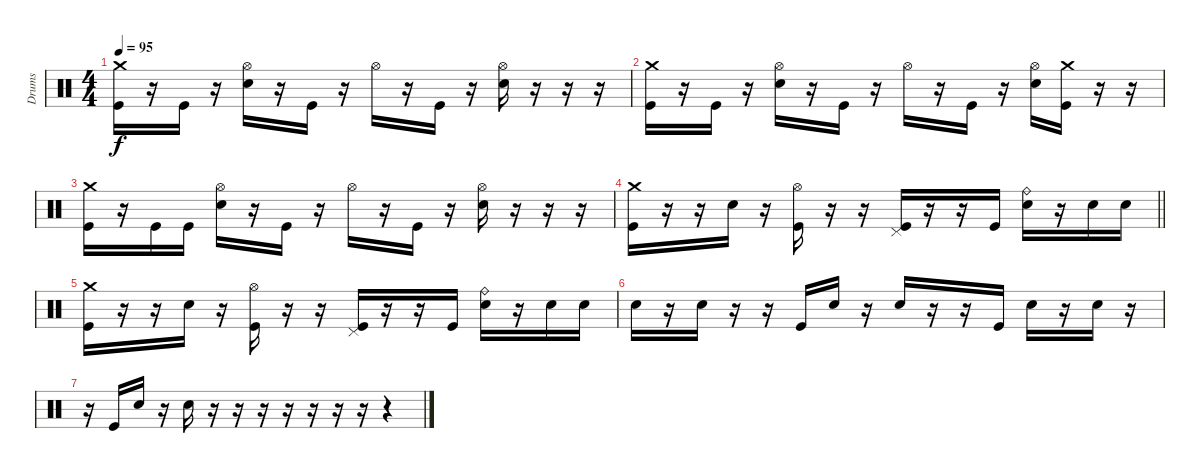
\track ("Drums" "Drums") {instrument percussion}
\staff {score}
\articulation defaults
\ts (4 4)
\tempo 95
\clef neutral
\ks c
("Crash medium (hit)" "Kick (hit)").16{dy f} r.16 "Kick (hit)".16 r.16 ("Hi-Hat (open)" "Electric Snare (hit)").16 r.16 "Kick (hit)".16 r.16 "Hi-Hat (open)".16 r.16 "Kick (hit)".16 r.16 ("Hi-Hat (open)" "Electric Snare (hit)").16 r.16 r.16 r.16 |
("Crash medium (hit)" "Kick (hit)").16 r.16 "Kick (hit)".16 r.16 ("Hi-Hat (open)" "Electric Snare (hit)").16 r.16 "Kick (hit)".16 r.16 "Hi-Hat (open)".16 r.16 "Kick (hit)".16 r.16 ("Hi-Hat (open)" "Electric Snare (hit)").16 ("Crash medium (hit)" "Kick (hit)").16 r.16 r.16 |
("Crash medium (hit)" "Kick (hit)").16 r.16 "Kick (hit)".16 "Kick (hit)".16 ("Hi-Hat (open)" "Electric Snare (hit)").16 r.16 "Kick (hit)".16 r.16 "Hi-Hat (open)".16 r.16 "Kick (hit)".16 r.16 ("Hi-Hat (open)" "Electric Snare (hit)").16 r.16 r.16 r.16 |
\barLineRight lightlight
("Crash medium (hit)" "Kick (hit)").16 r.16 r.16 "Electric Snare (hit)".16 r.16 ("Hi-Hat (open)" "Kick (hit)").16 r.16 r.16 ("Pedal Hi-Hat (hit)" "Kick (hit)").16 r.16 r.16 "Kick (hit)".16 ("Ride (bell)" "Electric Snare (hit)").16 r.16 "Electric Snare (hit)".16 "Electric Snare (hit)".16 |
("Crash medium (hit)" "Kick (hit)").16 r.16 r.16 "Electric Snare (hit)".16 r.16 ("Hi-Hat (open)" "Kick (hit)").16 r.16 r.16 ("Pedal Hi-Hat (hit)" "Kick (hit)").16 r.16 r.16 "Kick (hit)".16 ("Ride (bell)" "Electric Snare (hit)").16 r.16 "Electric Snare (hit)".16 "Electric Snare (hit)".16 |
"Electric Snare (hit)".16 r.16 "Electric Snare (hit)".16 r.16 r.16 "Kick (hit)".16 "Electric Snare (hit)".16 r.16 "Electric Snare (hit)".16 r.16 r.16 "Kick (hit)".16 "Electric Snare (hit)".16 r.16 "Electric Snare (hit)".16 r.16 |
r.16 "Kick (hit)".16 "Electric Snare (hit)".16 r.16 "Electric Snare (hit)".16 r.16 r.16 r.16 r.16 r.16 r.16 r.16 r.4
